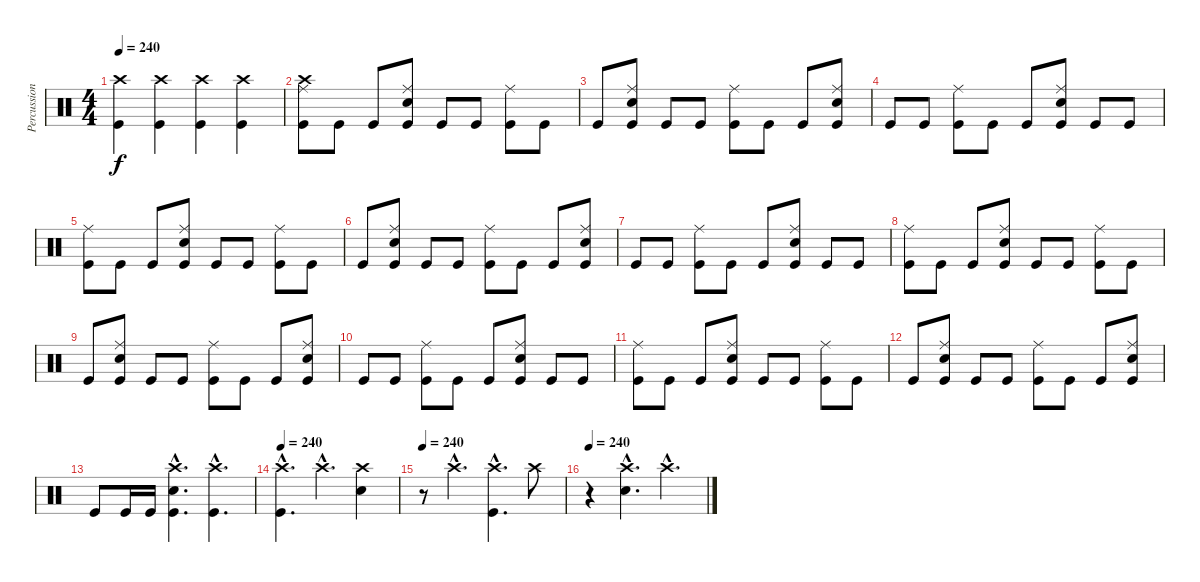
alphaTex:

\track ("Percussion" "Percussion") {instrument percussion}
\staff {score}
\articulation defaults
\ts (4 4)
\tempo 240
\clef neutral
\ks c
("Crash high (hit)" "Kick (hit)").4{dy f} ("Crash high (hit)" "Kick (hit)").4 ("Crash high (hit)" "Kick (hit)").4 ("Crash high (hit)" "Kick (hit)").4 |
("Ride (middle)" "Crash high (hit)" "Kick (hit)").8 "Kick (hit)".8 "Kick (hit)".8 ("Electric Snare (hit)" "Ride (middle)" "Kick (hit)").8 "Kick (hit)".8 "Kick (hit)".8 ("Ride (middle)" "Kick (hit)").8 "Kick (hit)".8 |
"Kick (hit)".8 ("Electric Snare (hit)" "Ride (middle)" "Kick (hit)").8 "Kick (hit)".8 "Kick (hit)".8 ("Ride (middle)" "Kick (hit)").8 "Kick (hit)".8 "Kick (hit)".8 ("Electric Snare (hit)" "Ride (middle)" "Kick (hit)").8 |
"Kick (hit)".8 "Kick (hit)".8 ("Ride (middle)" "Kick (hit)").8 "Kick (hit)".8 "Kick (hit)".8 ("Electric Snare (hit)" "Ride (middle)" "Kick (hit)").8 "Kick (hit)".8 "Kick (hit)".8 |
("Ride (middle)" "Kick (hit)").8 "Kick (hit)".8 "Kick (hit)".8 ("Electric Snare (hit)" "Ride (middle)" "Kick (hit)").8 "Kick (hit)".8 "Kick (hit)".8 ("Ride (middle)" "Kick (hit)").8 "Kick (hit)".8 |
"Kick (hit)".8 ("Electric Snare (hit)" "Ride (middle)" "Kick (hit)").8 "Kick (hit)".8 "Kick (hit)".8 ("Ride (middle)" "Kick (hit)").8 "Kick (hit)".8 "Kick (hit)".8 ("Electric Snare (hit)" "Ride (middle)" "Kick (hit)").8 |
"Kick (hit)".8 "Kick (hit)".8 ("Ride (middle)" "Kick (hit)").8 "Kick (hit)".8 "Kick (hit)".8 ("Electric Snare (hit)" "Ride (middle)" "Kick (hit)").8 "Kick (hit)".8 "Kick (hit)".8 |
("Ride (middle)" "Kick (hit)").8 "Kick (hit)".8 "Kick (hit)".8 ("Electric Snare (hit)" "Ride (middle)" "Kick (hit)").8 "Kick (hit)".8 "Kick (hit)".8 ("Ride (middle)" "Kick (hit)").8 "Kick (hit)".8 |
"Kick (hit)".8 ("Electric Snare (hit)" "Ride (middle)" "Kick (hit)").8 "Kick (hit)".8 "Kick (hit)".8 ("Ride (middle)" "Kick (hit)").8 "Kick (hit)".8 "Kick (hit)".8 ("Electric Snare (hit)" "Ride (middle)" "Kick (hit)").8 |
"Kick (hit)".8 "Kick (hit)".8 ("Ride (middle)" "Kick (hit)").8 "Kick (hit)".8 "Kick (hit)".8 ("Electric Snare (hit)" "Ride (middle)" "Kick (hit)").8 "Kick (hit)".8 "Kick (hit)".8 |
("Ride (middle)" "Kick (hit)").8 "Kick (hit)".8 "Kick (hit)".8 ("Electric Snare (hit)" "Ride (middle)" "Kick (hit)").8 "Kick (hit)".8 "Kick (hit)".8 ("Ride (middle)" "Kick (hit)").8 "Kick (hit)".8 |
"Kick (hit)".8 ("Electric Snare (hit)" "Ride (middle)" "Kick (hit)").8 "Kick (hit)".8 "Kick (hit)".8 ("Ride (middle)" "Kick (hit)").8 "Kick (hit)".8 "Kick (hit)".8 ("Electric Snare (hit)" "Ride (middle)" "Kick (hit)").8 |
"Kick (hit)".8 "Kick (hit)".16 "Kick (hit)".16 ("Electric Snare (hit)"{hac} "Crash high (hit)"{hac} "Kick (hit)"{hac}).4{d} ("Crash high (hit)"{hac} "Kick (hit)"{hac}).4{d} |
\tempo 240
("Crash high (hit)"{hac} "Kick (hit)"{hac}).4{d} "Crash high (hit)"{hac}.4{d} ("Crash high (hit)" "Electric Snare (hit)").4 |
\tempo 240
r.8 "Crash high (hit)"{hac}.4{d} ("Crash high (hit)"{hac} "Kick (hit)"{hac}).4{d} "Crash high (hit)".8 |
\tempo 240
r.4 ("Crash high (hit)"{hac} "Electric Snare (hit)"{hac}).4{d} "Crash high (hit)"{hac}.4{d}
